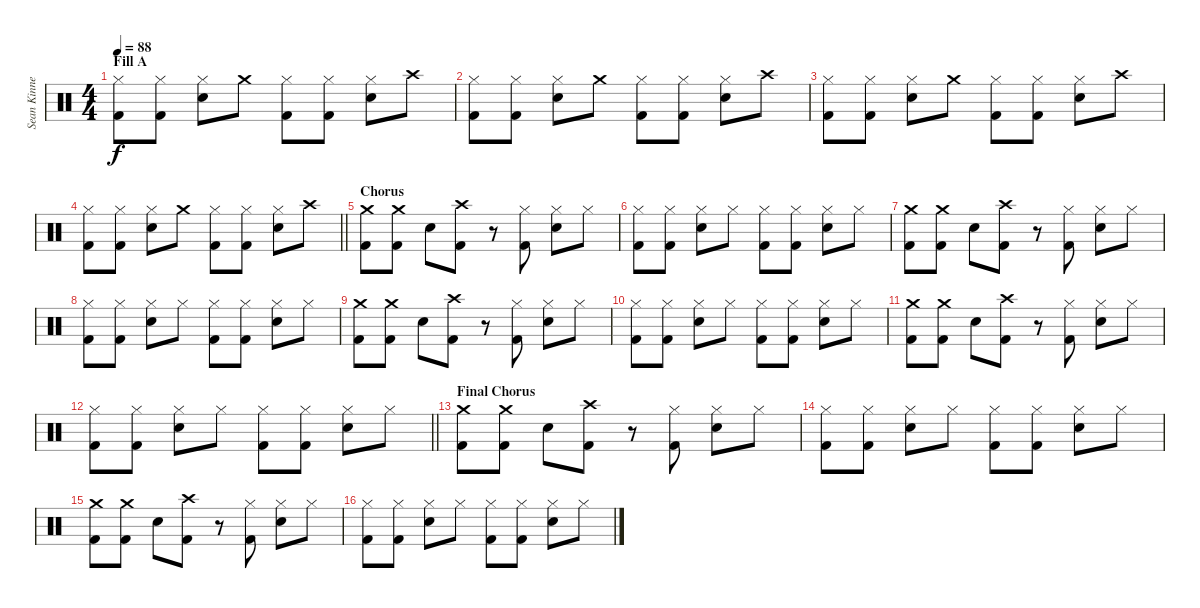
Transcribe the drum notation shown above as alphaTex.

\track ("Sean Kinney" "Sean Kinne") {instrument percussion}
\staff {score}
\articulation defaults
\ts (4 4)
\section ("" "Fill A")
\tempo 88
\clef neutral
\ks c
("Hi-Hat (closed)" "Kick (hit) 2").8{dy f} ("Hi-Hat (closed)" "Kick (hit) 2").8 ("Hi-Hat (closed)" "Electric Snare (hit)").8 "Crash medium (hit)".8 ("Hi-Hat (closed)" "Kick (hit) 2").8 ("Hi-Hat (closed)" "Kick (hit) 2").8 ("Hi-Hat (closed)" "Electric Snare (hit)").8 "Crash high (hit)".8 |
("Hi-Hat (closed)" "Kick (hit) 2").8 ("Hi-Hat (closed)" "Kick (hit) 2").8 ("Hi-Hat (closed)" "Electric Snare (hit)").8 "Crash medium (hit)".8 ("Hi-Hat (closed)" "Kick (hit) 2").8 ("Hi-Hat (closed)" "Kick (hit) 2").8 ("Hi-Hat (closed)" "Electric Snare (hit)").8 "Crash high (hit)".8 |
("Hi-Hat (closed)" "Kick (hit) 2").8 ("Hi-Hat (closed)" "Kick (hit) 2").8 ("Hi-Hat (closed)" "Electric Snare (hit)").8 "Crash medium (hit)".8 ("Hi-Hat (closed)" "Kick (hit) 2").8 ("Hi-Hat (closed)" "Kick (hit) 2").8 ("Hi-Hat (closed)" "Electric Snare (hit)").8 "Crash high (hit)".8 |
\barLineRight lightlight
("Hi-Hat (closed)" "Kick (hit) 2").8 ("Hi-Hat (closed)" "Kick (hit) 2").8 ("Hi-Hat (closed)" "Electric Snare (hit)").8 "Crash medium (hit)".8 ("Hi-Hat (closed)" "Kick (hit) 2").8 ("Hi-Hat (closed)" "Kick (hit) 2").8 ("Hi-Hat (closed)" "Electric Snare (hit)").8 "Crash high (hit)".8 |
\section ("" "Chorus")
("Crash medium (hit)" "Kick (hit) 2").8 ("Crash medium (hit)" "Kick (hit) 2").8 "Electric Snare (hit)".8 ("Crash high (hit)" "Kick (hit) 2").8 r.8 ("Hi-Hat (closed)" "Kick (hit) 2").8 ("Hi-Hat (closed)" "Electric Snare (hit)").8 "Hi-Hat (closed)".8 |
("Hi-Hat (closed)" "Kick (hit) 2").8 ("Hi-Hat (closed)" "Kick (hit) 2").8 ("Hi-Hat (closed)" "Electric Snare (hit)").8 "Hi-Hat (closed)".8 ("Hi-Hat (closed)" "Kick (hit) 2").8 ("Hi-Hat (closed)" "Kick (hit) 2").8 ("Hi-Hat (closed)" "Electric Snare (hit)").8 "Hi-Hat (closed)".8 |
("Crash medium (hit)" "Kick (hit) 2").8 ("Crash medium (hit)" "Kick (hit) 2").8 "Electric Snare (hit)".8 ("Crash high (hit)" "Kick (hit) 2").8 r.8 ("Hi-Hat (closed)" "Kick (hit) 2").8 ("Hi-Hat (closed)" "Electric Snare (hit)").8 "Hi-Hat (closed)".8 |
("Hi-Hat (closed)" "Kick (hit) 2").8 ("Hi-Hat (closed)" "Kick (hit) 2").8 ("Hi-Hat (closed)" "Electric Snare (hit)").8 "Hi-Hat (closed)".8 ("Hi-Hat (closed)" "Kick (hit) 2").8 ("Hi-Hat (closed)" "Kick (hit) 2").8 ("Hi-Hat (closed)" "Electric Snare (hit)").8 "Hi-Hat (closed)".8 |
("Crash medium (hit)" "Kick (hit) 2").8 ("Crash medium (hit)" "Kick (hit) 2").8 "Electric Snare (hit)".8 ("Crash high (hit)" "Kick (hit) 2").8 r.8 ("Hi-Hat (closed)" "Kick (hit) 2").8 ("Hi-Hat (closed)" "Electric Snare (hit)").8 "Hi-Hat (closed)".8 |
("Hi-Hat (closed)" "Kick (hit) 2").8 ("Hi-Hat (closed)" "Kick (hit) 2").8 ("Hi-Hat (closed)" "Electric Snare (hit)").8 "Hi-Hat (closed)".8 ("Hi-Hat (closed)" "Kick (hit) 2").8 ("Hi-Hat (closed)" "Kick (hit) 2").8 ("Hi-Hat (closed)" "Electric Snare (hit)").8 "Hi-Hat (closed)".8 |
("Crash medium (hit)" "Kick (hit) 2").8 ("Crash medium (hit)" "Kick (hit) 2").8 "Electric Snare (hit)".8 ("Crash high (hit)" "Kick (hit) 2").8 r.8 ("Hi-Hat (closed)" "Kick (hit) 2").8 ("Hi-Hat (closed)" "Electric Snare (hit)").8 "Hi-Hat (closed)".8 |
\barLineRight lightlight
("Hi-Hat (closed)" "Kick (hit) 2").8 ("Hi-Hat (closed)" "Kick (hit) 2").8 ("Hi-Hat (closed)" "Electric Snare (hit)").8 "Hi-Hat (closed)".8 ("Hi-Hat (closed)" "Kick (hit) 2").8 ("Hi-Hat (closed)" "Kick (hit) 2").8 ("Hi-Hat (closed)" "Electric Snare (hit)").8 "Hi-Hat (closed)".8 |
\section ("" "Final Chorus")
("Crash medium (hit)" "Kick (hit) 2").8 ("Crash medium (hit)" "Kick (hit) 2").8 "Electric Snare (hit)".8 ("Crash high (hit)" "Kick (hit) 2").8 r.8 ("Hi-Hat (closed)" "Kick (hit) 2").8 ("Hi-Hat (closed)" "Electric Snare (hit)").8 "Hi-Hat (closed)".8 |
("Hi-Hat (closed)" "Kick (hit) 2").8 ("Hi-Hat (closed)" "Kick (hit) 2").8 ("Hi-Hat (closed)" "Electric Snare (hit)").8 "Hi-Hat (closed)".8 ("Hi-Hat (closed)" "Kick (hit) 2").8 ("Hi-Hat (closed)" "Kick (hit) 2").8 ("Hi-Hat (closed)" "Electric Snare (hit)").8 "Hi-Hat (closed)".8 |
("Crash medium (hit)" "Kick (hit) 2").8 ("Crash medium (hit)" "Kick (hit) 2").8 "Electric Snare (hit)".8 ("Crash high (hit)" "Kick (hit) 2").8 r.8 ("Hi-Hat (closed)" "Kick (hit) 2").8 ("Hi-Hat (closed)" "Electric Snare (hit)").8 "Hi-Hat (closed)".8 |
("Hi-Hat (closed)" "Kick (hit) 2").8 ("Hi-Hat (closed)" "Kick (hit) 2").8 ("Hi-Hat (closed)" "Electric Snare (hit)").8 "Hi-Hat (closed)".8 ("Hi-Hat (closed)" "Kick (hit) 2").8 ("Hi-Hat (closed)" "Kick (hit) 2").8 ("Hi-Hat (closed)" "Electric Snare (hit)").8 "Hi-Hat (closed)".8
